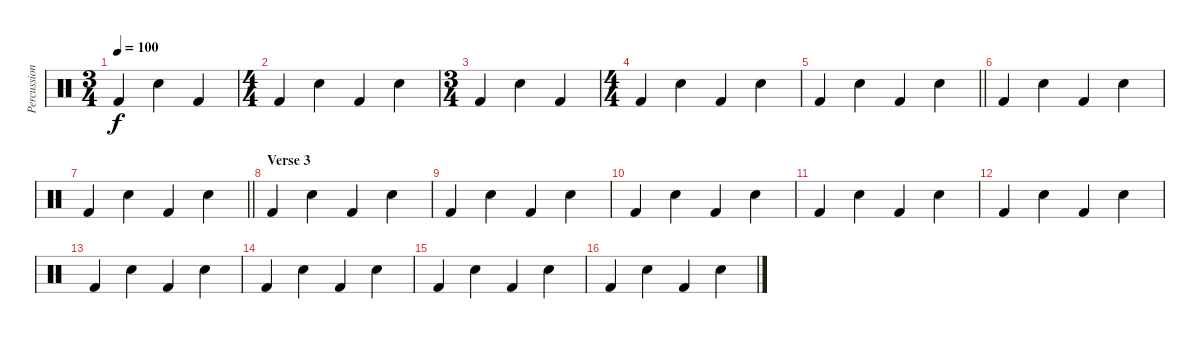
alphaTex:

\track ("Percussion" "Percussion") {instrument percussion}
\staff {score}
\articulation defaults
\ts (3 4)
\tempo 100
\clef neutral
\ks c "Kick (hit) 2".4{dy f} "Snare (hit) 2".4 "Kick (hit) 2".4
|
\ts (4 4)
"Kick (hit) 2".4 "Snare (hit) 2".4 "Kick (hit) 2".4 "Snare (hit) 2".4 |
\ts (3 4)
"Kick (hit) 2".4 "Snare (hit) 2".4 "Kick (hit) 2".4 |
\ts (4 4)
"Kick (hit) 2".4 "Snare (hit) 2".4 "Kick (hit) 2".4 "Snare (hit) 2".4 |
\barLineRight lightlight "Kick (hit) 2".4 "Snare (hit) 2".4 "Kick (hit) 2".4 "Snare (hit) 2".4
|
"Kick (hit) 2".4 "Snare (hit) 2".4 "Kick (hit) 2".4 "Snare (hit) 2".4 |
\barLineRight lightlight "Kick (hit) 2".4 "Snare (hit) 2".4 "Kick (hit) 2".4 "Snare (hit) 2".4
|
\section ("" "Verse 3")
"Kick (hit) 2".4 "Snare (hit) 2".4 "Kick (hit) 2".4 "Snare (hit) 2".4 |
"Kick (hit) 2".4 "Snare (hit) 2".4 "Kick (hit) 2".4 "Snare (hit) 2".4 |
"Kick (hit) 2".4 "Snare (hit) 2".4 "Kick (hit) 2".4 "Snare (hit) 2".4 |
"Kick (hit) 2".4 "Snare (hit) 2".4 "Kick (hit) 2".4 "Snare (hit) 2".4 |
"Kick (hit) 2".4 "Snare (hit) 2".4 "Kick (hit) 2".4 "Snare (hit) 2".4 |
"Kick (hit) 2".4 "Snare (hit) 2".4 "Kick (hit) 2".4 "Snare (hit) 2".4 |
"Kick (hit) 2".4 "Snare (hit) 2".4 "Kick (hit) 2".4 "Snare (hit) 2".4 |
"Kick (hit) 2".4 "Snare (hit) 2".4 "Kick (hit) 2".4 "Snare (hit) 2".4 |
"Kick (hit) 2".4 "Snare (hit) 2".4 "Kick (hit) 2".4 "Snare (hit) 2".4
